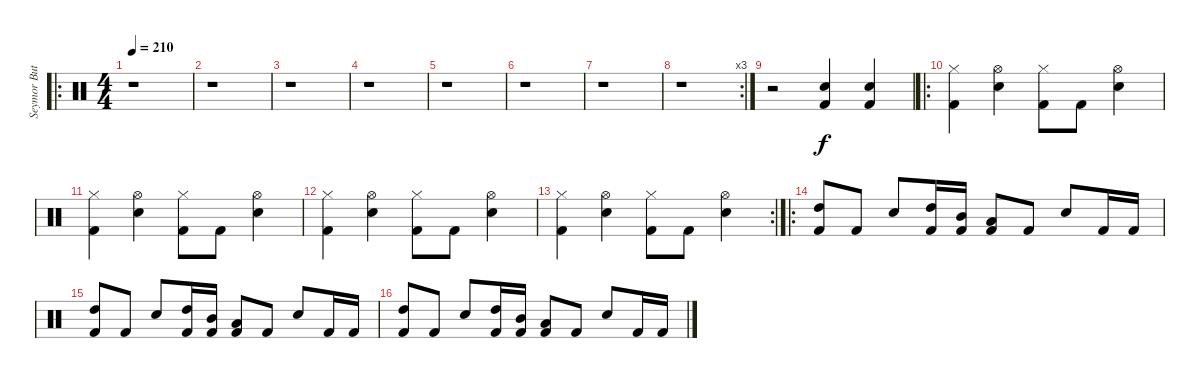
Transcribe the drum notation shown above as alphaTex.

\track ("Seymor Butts (Drums)" "Seymor But") {instrument percussion}
\staff {score}
\articulation defaults
\ro
\ts (4 4)
\tempo 210
\clef neutral
\ks c
r.1{dy f} |
r.1 |
r.1 |
r.1 |
r.1 |
r.1 |
r.1 |
\rc 3
r.1 |
r.2 ("Snare (hit) 2" "Kick (hit) 2").4 ("Snare (hit) 2" "Kick (hit) 2").4 |
\ro
("Hi-Hat (closed)" "Kick (hit) 2").4 ("Hi-Hat (open)" "Snare (hit) 2").4 ("Hi-Hat (closed)" "Kick (hit) 2").8 "Kick (hit) 2".8 ("Hi-Hat (open)" "Snare (hit) 2").4 |
("Hi-Hat (closed)" "Kick (hit) 2").4 ("Hi-Hat (open)" "Snare (hit) 2").4 ("Hi-Hat (closed)" "Kick (hit) 2").8 "Kick (hit) 2".8 ("Hi-Hat (open)" "Snare (hit) 2").4 |
("Hi-Hat (closed)" "Kick (hit) 2").4 ("Hi-Hat (open)" "Snare (hit) 2").4 ("Hi-Hat (closed)" "Kick (hit) 2").8 "Kick (hit) 2".8 ("Hi-Hat (open)" "Snare (hit) 2").4 |
\rc 2
("Hi-Hat (closed)" "Kick (hit) 2").4 ("Hi-Hat (open)" "Snare (hit) 2").4 ("Hi-Hat (closed)" "Kick (hit) 2").8 "Kick (hit) 2".8 ("Hi-Hat (open)" "Snare (hit) 2").4 |
\ro
("High Tom (hit)" "Kick (hit) 2").8 "Kick (hit) 2".8 "Snare (hit) 2".8 ("High Tom (hit)" "Kick (hit) 2").16 ("Mid Tom (hit)" "Kick (hit) 2").16 ("Low Tom (hit)" "Kick (hit) 2").8 "Kick (hit) 2".8 "Snare (hit) 2".8 "Kick (hit) 2".16 "Kick (hit) 2".16 |
("High Tom (hit)" "Kick (hit) 2").8 "Kick (hit) 2".8 "Snare (hit) 2".8 ("High Tom (hit)" "Kick (hit) 2").16 ("Mid Tom (hit)" "Kick (hit) 2").16 ("Low Tom (hit)" "Kick (hit) 2").8 "Kick (hit) 2".8 "Snare (hit) 2".8 "Kick (hit) 2".16 "Kick (hit) 2".16 |
("High Tom (hit)" "Kick (hit) 2").8 "Kick (hit) 2".8 "Snare (hit) 2".8 ("High Tom (hit)" "Kick (hit) 2").16 ("Mid Tom (hit)" "Kick (hit) 2").16 ("Low Tom (hit)" "Kick (hit) 2").8 "Kick (hit) 2".8 "Snare (hit) 2".8 "Kick (hit) 2".16 "Kick (hit) 2".16
